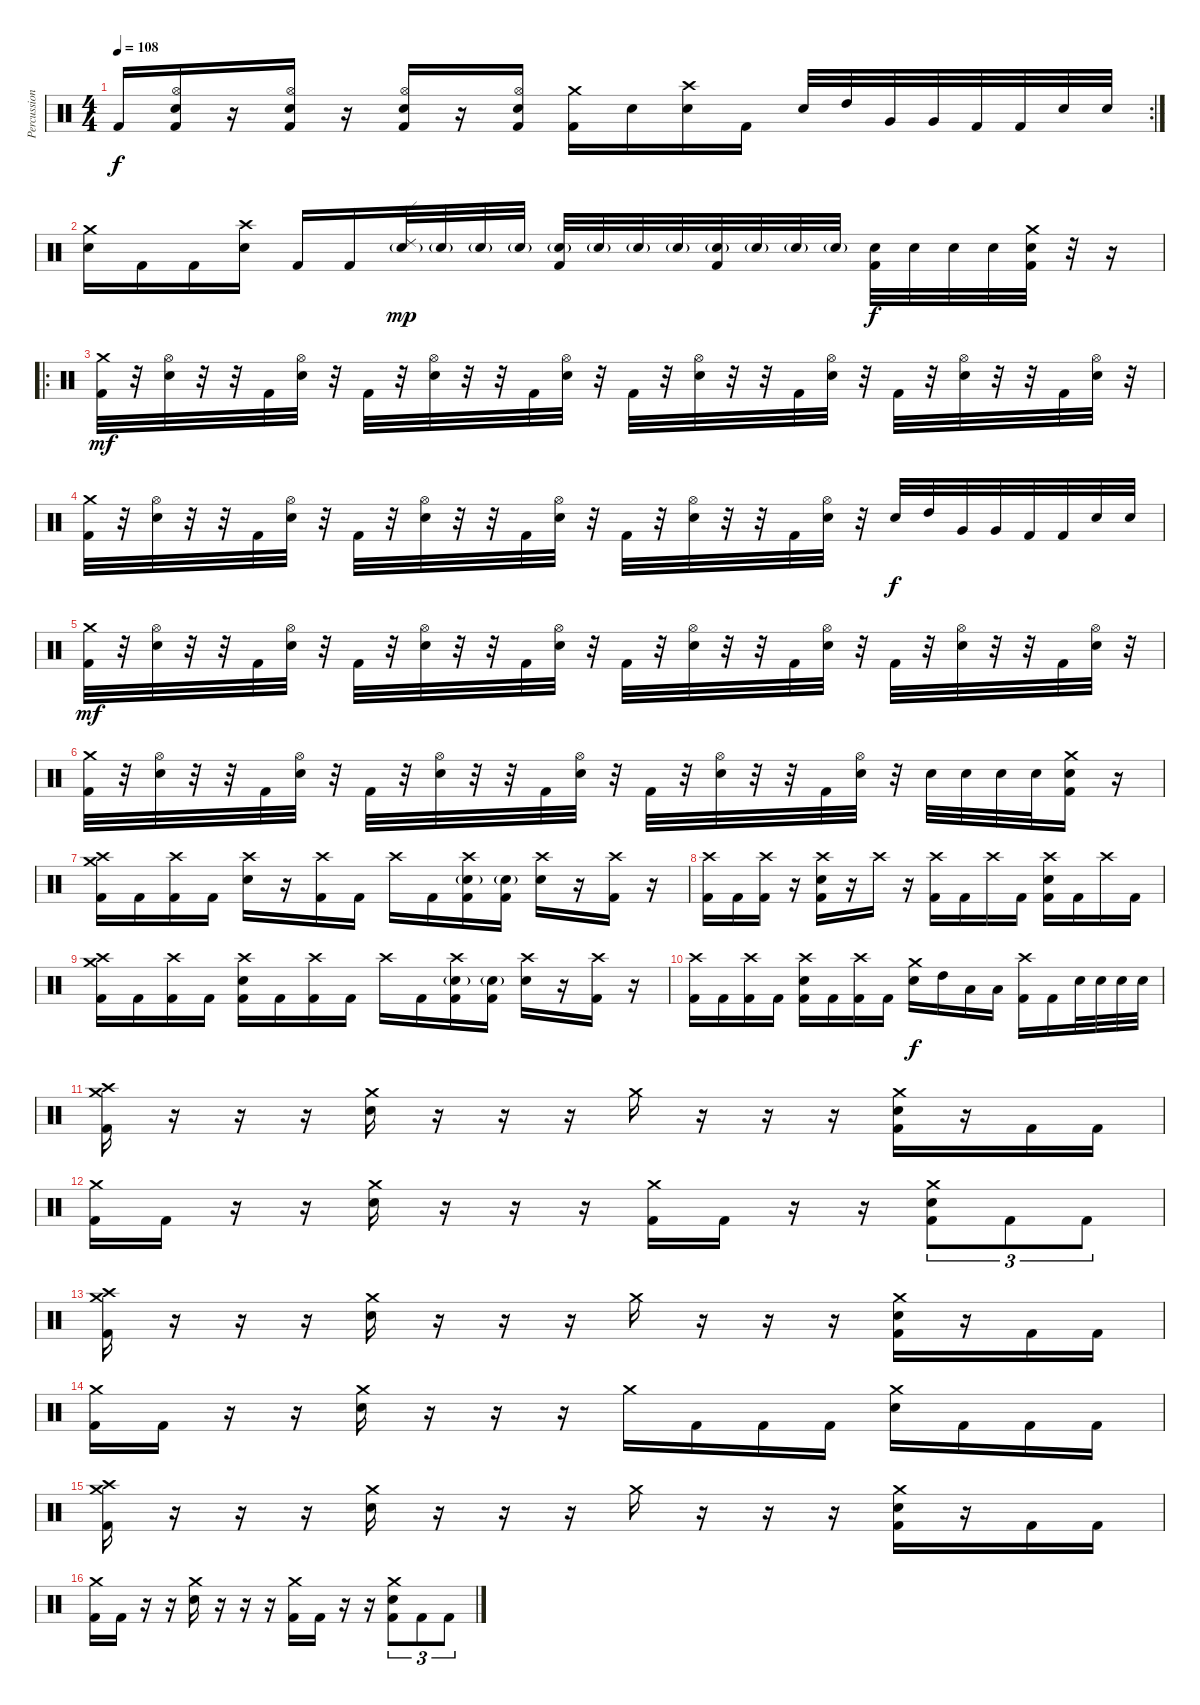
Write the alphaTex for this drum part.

\track ("Percussion" "Percussion") {instrument percussion}
\staff {score}
\articulation defaults
\rc 2
\ts (4 4)
\tempo 108
\clef neutral
\ks c "Kick (hit) 2".16{dy f}
("Hi-Hat (open)" "Electric Snare (hit)" "Kick (hit) 2").16 r.16 ("Hi-Hat (open)" "Electric Snare (hit)" "Kick (hit) 2").16 r.16 ("Hi-Hat (open)" "Electric Snare (hit)" "Kick (hit) 2").16 r.16 ("Hi-Hat (open)" "Electric Snare (hit)" "Kick (hit) 2").16 ("Crash medium (hit)" "Kick (hit) 2").16 "Electric Snare (hit)".16 ("Crash high (hit)" "Electric Snare (hit)").16 "Kick (hit) 2".16 "Electric Snare (hit)".32 "High Tom (hit)".32 "Very Low Tom (hit)".32 "Very Low Tom (hit)".32 "Kick (hit) 2".32 "Kick (hit) 2".32 "Electric Snare (hit)".32 "Electric Snare (hit)".32 |
("Crash medium (hit)" "Electric Snare (hit)").16 "Kick (hit) 2".16 "Kick (hit) 2".16 ("Crash high (hit)" "Electric Snare (hit)").16 "Kick (hit) 2".16 "Kick (hit) 2".16 ("Ride (edge) 2" "Electric Snare (hit)"{g}).32{dy mp} "Electric Snare (hit)"{g}.32 "Electric Snare (hit)"{g}.32 "Electric Snare (hit)"{g}.32 ("Kick (hit) 2" "Electric Snare (hit)"{g}).32 "Electric Snare (hit)"{g}.32 "Electric Snare (hit)"{g}.32 "Electric Snare (hit)"{g}.32 ("Kick (hit) 2" "Electric Snare (hit)"{g}).32 "Electric Snare (hit)"{g}.32 "Electric Snare (hit)"{g}.32 "Electric Snare (hit)"{g}.32 ("Kick (hit) 2" "Electric Snare (hit)").32{dy f} "Electric Snare (hit)".32 "Electric Snare (hit)".32 "Electric Snare (hit)".32 ("Crash medium (hit)" "Kick (hit) 2" "Electric Snare (hit)").32 r.32 r.16 |
\ro
("Crash medium (hit)" "Kick (hit) 2").32{dy mf} r.32 ("Hi-Hat (open)" "Electric Snare (hit)").32 r.32 r.32 "Kick (hit) 2".32 ("Hi-Hat (open)" "Electric Snare (hit)").32 r.32 "Kick (hit) 2".32 r.32 ("Hi-Hat (open)" "Electric Snare (hit)").32 r.32 r.32 "Kick (hit) 2".32 ("Hi-Hat (open)" "Electric Snare (hit)").32 r.32 "Kick (hit) 2".32 r.32 ("Hi-Hat (open)" "Electric Snare (hit)").32 r.32 r.32 "Kick (hit) 2".32 ("Hi-Hat (open)" "Electric Snare (hit)").32 r.32 "Kick (hit) 2".32 r.32 ("Hi-Hat (open)" "Electric Snare (hit)").32 r.32 r.32 "Kick (hit) 2".32 ("Hi-Hat (open)" "Electric Snare (hit)").32 r.32 |
("Crash medium (hit)" "Kick (hit) 2").32 r.32 ("Hi-Hat (open)" "Electric Snare (hit)").32 r.32 r.32 "Kick (hit) 2".32 ("Hi-Hat (open)" "Electric Snare (hit)").32 r.32 "Kick (hit) 2".32 r.32 ("Hi-Hat (open)" "Electric Snare (hit)").32 r.32 r.32 "Kick (hit) 2".32 ("Hi-Hat (open)" "Electric Snare (hit)").32 r.32 "Kick (hit) 2".32 r.32 ("Hi-Hat (open)" "Electric Snare (hit)").32 r.32 r.32 "Kick (hit) 2".32 ("Hi-Hat (open)" "Electric Snare (hit)").32 r.32 "Electric Snare (hit)".32{dy f} "High Tom (hit)".32 "Very Low Tom (hit)".32 "Very Low Tom (hit)".32 "Kick (hit) 2".32 "Kick (hit) 2".32 "Electric Snare (hit)".32 "Electric Snare (hit)".32 |
("Crash medium (hit)" "Kick (hit) 2").32{dy mf} r.32 ("Hi-Hat (open)" "Electric Snare (hit)").32 r.32 r.32 "Kick (hit) 2".32 ("Hi-Hat (open)" "Electric Snare (hit)").32 r.32 "Kick (hit) 2".32 r.32 ("Hi-Hat (open)" "Electric Snare (hit)").32 r.32 r.32 "Kick (hit) 2".32 ("Hi-Hat (open)" "Electric Snare (hit)").32 r.32 "Kick (hit) 2".32 r.32 ("Hi-Hat (open)" "Electric Snare (hit)").32 r.32 r.32 "Kick (hit) 2".32 ("Hi-Hat (open)" "Electric Snare (hit)").32 r.32 "Kick (hit) 2".32 r.32 ("Hi-Hat (open)" "Electric Snare (hit)").32 r.32 r.32 "Kick (hit) 2".32 ("Hi-Hat (open)" "Electric Snare (hit)").32 r.32 |
("Crash medium (hit)" "Kick (hit) 2").32 r.32 ("Hi-Hat (open)" "Electric Snare (hit)").32 r.32 r.32 "Kick (hit) 2".32 ("Hi-Hat (open)" "Electric Snare (hit)").32 r.32 "Kick (hit) 2".32 r.32 ("Hi-Hat (open)" "Electric Snare (hit)").32 r.32 r.32 "Kick (hit) 2".32 ("Hi-Hat (open)" "Electric Snare (hit)").32 r.32 "Kick (hit) 2".32 r.32 ("Hi-Hat (open)" "Electric Snare (hit)").32 r.32 r.32 "Kick (hit) 2".32 ("Hi-Hat (open)" "Electric Snare (hit)").32 r.32 "Electric Snare (hit)".32 "Electric Snare (hit)".32 "Electric Snare (hit)".32 "Electric Snare (hit)".32 ("Crash medium (hit)" "Electric Snare (hit)" "Kick (hit) 2").16 r.16 |
("Crash medium (hit)" "Crash high (hit)" "Kick (hit) 2").16 "Kick (hit) 2".16 ("Crash high (hit)" "Kick (hit) 2").16 "Kick (hit) 2".16 ("Crash high (hit)" "Electric Snare (hit)").16 r.16 ("Crash high (hit)" "Kick (hit) 2").16 "Kick (hit) 2".16 "Crash high (hit)".16 "Kick (hit) 2".16 ("Crash high (hit)" "Electric Snare (hit)"{g} "Kick (hit) 2").16 ("Electric Snare (hit)"{g} "Kick (hit) 2").16 ("Crash high (hit)" "Electric Snare (hit)").16 r.16 ("Crash high (hit)" "Kick (hit) 2").16 r.16 |
("Crash high (hit)" "Kick (hit) 2").16 "Kick (hit) 2".16 ("Crash high (hit)" "Kick (hit) 2").16 r.16 ("Crash high (hit)" "Electric Snare (hit)" "Kick (hit) 2").16 r.16 "Crash high (hit)".16 r.16 ("Crash high (hit)" "Kick (hit) 2").16 "Kick (hit) 2".16 "Crash high (hit)".16 "Kick (hit) 2".16 ("Crash high (hit)" "Electric Snare (hit)" "Kick (hit) 2").16 "Kick (hit) 2".16 "Crash high (hit)".16 "Kick (hit) 2".16 |
("Crash medium (hit)" "Crash high (hit)" "Kick (hit) 2").16 "Kick (hit) 2".16 ("Crash high (hit)" "Kick (hit) 2").16 "Kick (hit) 2".16 ("Crash high (hit)" "Electric Snare (hit)" "Kick (hit) 2").16 "Kick (hit) 2".16 ("Crash high (hit)" "Kick (hit) 2").16 "Kick (hit) 2".16 "Crash high (hit)".16 "Kick (hit) 2".16 ("Crash high (hit)" "Electric Snare (hit)"{g} "Kick (hit) 2").16 ("Electric Snare (hit)"{g} "Kick (hit) 2").16 ("Crash high (hit)" "Electric Snare (hit)").16 r.16 ("Crash high (hit)" "Kick (hit) 2").16 r.16 |
("Crash high (hit)" "Kick (hit) 2").16 "Kick (hit) 2".16 ("Crash high (hit)" "Kick (hit) 2").16 "Kick (hit) 2".16 ("Crash high (hit)" "Electric Snare (hit)" "Kick (hit) 2").16 "Kick (hit) 2".16 ("Crash high (hit)" "Kick (hit) 2").16 "Kick (hit) 2".16 ("Crash medium (hit)" "Electric Snare (hit)").16{dy f} "High Tom (hit)".16 "Low Tom (hit)".16 "Low Tom (hit)".16 ("Crash high (hit)" "Kick (hit) 2").16 "Kick (hit) 2".16 "Electric Snare (hit)".32 "Electric Snare (hit)".32 "Electric Snare (hit)".32 "Electric Snare (hit)".32 |
("Crash medium (hit)" "Crash high (hit)" "Kick (hit) 2").16 r.16 r.16 r.16 ("Crash medium (hit)" "Electric Snare (hit)").16 r.16 r.16 r.16 "Crash medium (hit)".16 r.16 r.16 r.16 ("Crash medium (hit)" "Electric Snare (hit)" "Kick (hit) 2").16 r.16 "Kick (hit) 2".16 "Kick (hit) 2".16 |
("Crash medium (hit)" "Kick (hit) 2").16 "Kick (hit) 2".16 r.16 r.16 ("Crash medium (hit)" "Electric Snare (hit)").16 r.16 r.16 r.16 ("Crash medium (hit)" "Kick (hit) 2").16 "Kick (hit) 2".16 r.16 r.16 ("Crash medium (hit)" "Electric Snare (hit)" "Kick (hit) 2").8{tu (3 2)} "Kick (hit) 2".8{tu (3 2)} "Kick (hit) 2".8{tu (3 2)} |
("Crash medium (hit)" "Crash high (hit)" "Kick (hit) 2").16 r.16 r.16 r.16 ("Crash medium (hit)" "Electric Snare (hit)").16 r.16 r.16 r.16 "Crash medium (hit)".16 r.16 r.16 r.16 ("Crash medium (hit)" "Electric Snare (hit)" "Kick (hit) 2").16 r.16 "Kick (hit) 2".16 "Kick (hit) 2".16 |
("Crash medium (hit)" "Kick (hit) 2").16 "Kick (hit) 2".16 r.16 r.16 ("Crash medium (hit)" "Electric Snare (hit)").16 r.16 r.16 r.16 "Crash medium (hit)".16 "Kick (hit) 2".16 "Kick (hit) 2".16 "Kick (hit) 2".16 ("Crash medium (hit)" "Electric Snare (hit)").16 "Kick (hit) 2".16 "Kick (hit) 2".16 "Kick (hit) 2".16 |
("Crash medium (hit)" "Crash high (hit)" "Kick (hit) 2").16 r.16 r.16 r.16 ("Crash medium (hit)" "Electric Snare (hit)").16 r.16 r.16 r.16 "Crash medium (hit)".16 r.16 r.16 r.16 ("Crash medium (hit)" "Electric Snare (hit)" "Kick (hit) 2").16 r.16 "Kick (hit) 2".16 "Kick (hit) 2".16 |
("Crash medium (hit)" "Kick (hit) 2").16 "Kick (hit) 2".16 r.16 r.16 ("Crash medium (hit)" "Electric Snare (hit)").16 r.16 r.16 r.16 ("Crash medium (hit)" "Kick (hit) 2").16 "Kick (hit) 2".16 r.16 r.16 ("Crash medium (hit)" "Electric Snare (hit)" "Kick (hit) 2").8{tu (3 2)} "Kick (hit) 2".8{tu (3 2)} "Kick (hit) 2".8{tu (3 2)}
